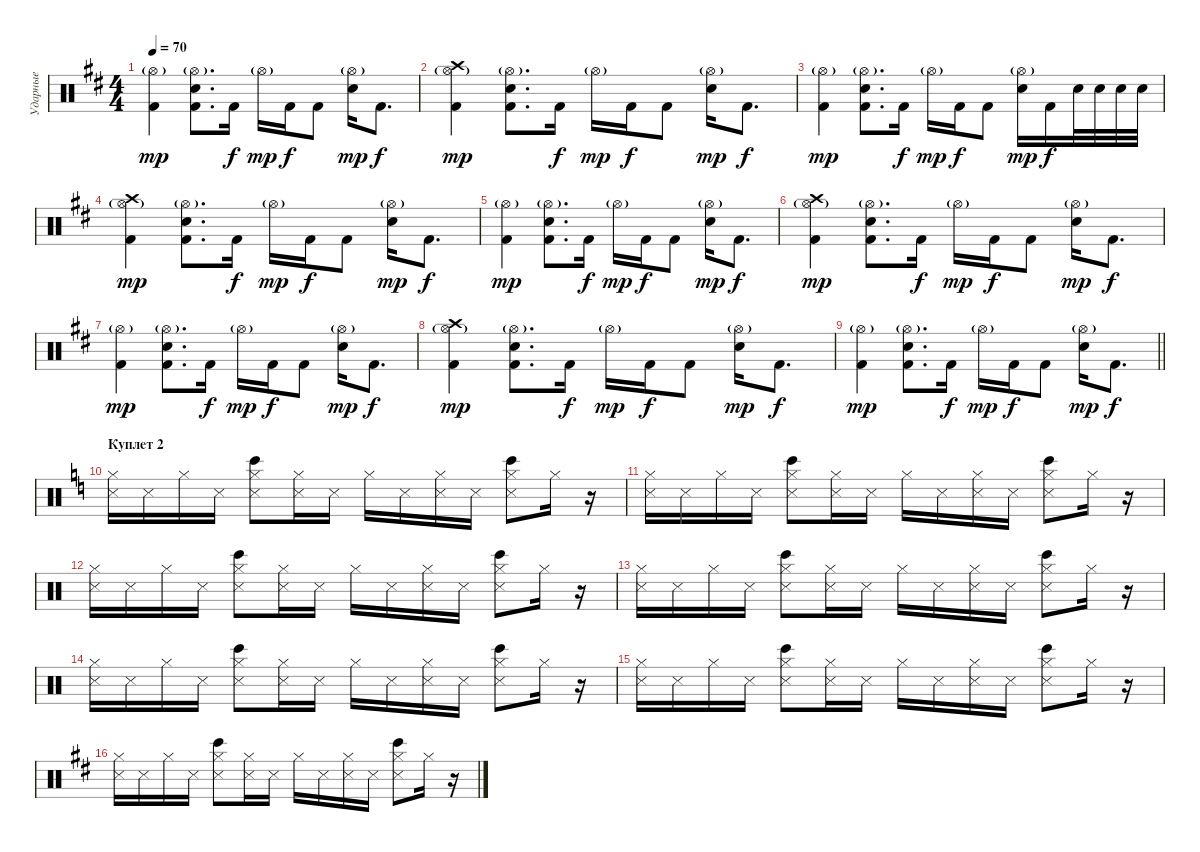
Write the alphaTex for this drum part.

\track ("Ударные" "Ударные") {instrument percussion}
\staff {score}
\articulation defaults
\ts (4 4)
\tempo 70
\clef neutral
\ks bminor
("Hi-Hat (open)"{g} "Kick (hit) 2").4{dy mp} ("Hi-Hat (open)"{g} "Electric Snare (hit)" "Kick (hit) 2").8{d} "Kick (hit) 2".16{dy f} "Hi-Hat (open)"{g}.16{dy mp} "Kick (hit) 2".16{dy f} "Kick (hit) 2".8 ("Hi-Hat (open)"{g} "Electric Snare (hit)").16{dy mp} "Kick (hit) 2".8{d dy f} |
("Crash high (hit)" "Hi-Hat (open)"{g} "Kick (hit) 2").4{dy mp} ("Hi-Hat (open)"{g} "Electric Snare (hit)" "Kick (hit) 2").8{d} "Kick (hit) 2".16{dy f} "Hi-Hat (open)"{g}.16{dy mp} "Kick (hit) 2".16{dy f} "Kick (hit) 2".8 ("Hi-Hat (open)"{g} "Electric Snare (hit)").16{dy mp} "Kick (hit) 2".8{d dy f} |
("Hi-Hat (open)"{g} "Kick (hit) 2").4{dy mp} ("Hi-Hat (open)"{g} "Electric Snare (hit)" "Kick (hit) 2").8{d} "Kick (hit) 2".16{dy f} "Hi-Hat (open)"{g}.16{dy mp} "Kick (hit) 2".16{dy f} "Kick (hit) 2".8 ("Hi-Hat (open)"{g} "Electric Snare (hit)").16{dy mp} "Kick (hit) 2".16{dy f} "Electric Snare (hit)".32 "Electric Snare (hit)".32 "Electric Snare (hit)".32 "Electric Snare (hit)".32 |
("Crash high (hit)" "Hi-Hat (open)"{g} "Kick (hit) 2").4{dy mp} ("Hi-Hat (open)"{g} "Electric Snare (hit)" "Kick (hit) 2").8{d} "Kick (hit) 2".16{dy f} "Hi-Hat (open)"{g}.16{dy mp} "Kick (hit) 2".16{dy f} "Kick (hit) 2".8 ("Hi-Hat (open)"{g} "Electric Snare (hit)").16{dy mp} "Kick (hit) 2".8{d dy f} |
("Hi-Hat (open)"{g} "Kick (hit) 2").4{dy mp} ("Hi-Hat (open)"{g} "Electric Snare (hit)" "Kick (hit) 2").8{d} "Kick (hit) 2".16{dy f} "Hi-Hat (open)"{g}.16{dy mp} "Kick (hit) 2".16{dy f} "Kick (hit) 2".8 ("Hi-Hat (open)"{g} "Electric Snare (hit)").16{dy mp} "Kick (hit) 2".8{d dy f} |
("Crash high (hit)" "Hi-Hat (open)"{g} "Kick (hit) 2").4{dy mp} ("Hi-Hat (open)"{g} "Electric Snare (hit)" "Kick (hit) 2").8{d} "Kick (hit) 2".16{dy f} "Hi-Hat (open)"{g}.16{dy mp} "Kick (hit) 2".16{dy f} "Kick (hit) 2".8 ("Hi-Hat (open)"{g} "Electric Snare (hit)").16{dy mp} "Kick (hit) 2".8{d dy f} |
("Hi-Hat (open)"{g} "Kick (hit) 2").4{dy mp} ("Hi-Hat (open)"{g} "Electric Snare (hit)" "Kick (hit) 2").8{d} "Kick (hit) 2".16{dy f} "Hi-Hat (open)"{g}.16{dy mp} "Kick (hit) 2".16{dy f} "Kick (hit) 2".8 ("Hi-Hat (open)"{g} "Electric Snare (hit)").16{dy mp} "Kick (hit) 2".8{d dy f} |
("Crash high (hit)" "Hi-Hat (open)"{g} "Kick (hit) 2").4{dy mp} ("Hi-Hat (open)"{g} "Electric Snare (hit)" "Kick (hit) 2").8{d} "Kick (hit) 2".16{dy f} "Hi-Hat (open)"{g}.16{dy mp} "Kick (hit) 2".16{dy f} "Kick (hit) 2".8 ("Hi-Hat (open)"{g} "Electric Snare (hit)").16{dy mp} "Kick (hit) 2".8{d dy f} |
\barLineRight lightlight
("Hi-Hat (open)"{g} "Kick (hit) 2").4{dy mp} ("Hi-Hat (open)"{g} "Electric Snare (hit)" "Kick (hit) 2").8{d} "Kick (hit) 2".16{dy f} "Hi-Hat (open)"{g}.16{dy mp} "Kick (hit) 2".16{dy f} "Kick (hit) 2".8 ("Hi-Hat (open)"{g} "Electric Snare (hit)").16{dy mp} "Kick (hit) 2".8{d dy f} |
\section ("" "Куплет 2")
\ks c
("Hi-Hat (closed)" "Snare (side stick) 3").16 "Snare (side stick) 3".16 "Hi-Hat (closed)".16 "Snare (side stick) 3".16 ("Hi-Hat (closed)" "Bongo High (hit)" "Snare (side stick) 3").8 ("Hi-Hat (closed)" "Snare (side stick) 3").16 "Snare (side stick) 3".16 "Hi-Hat (closed)".16 "Snare (side stick) 3".16 ("Hi-Hat (closed)" "Snare (side stick) 3").16 "Snare (side stick) 3".16 ("Hi-Hat (closed)" "Bongo High (hit)" "Snare (side stick) 3").8 "Hi-Hat (closed)".16 r.16 |
("Hi-Hat (closed)" "Snare (side stick) 3").16 "Snare (side stick) 3".16 "Hi-Hat (closed)".16 "Snare (side stick) 3".16 ("Hi-Hat (closed)" "Bongo High (hit)" "Snare (side stick) 3").8 ("Hi-Hat (closed)" "Snare (side stick) 3").16 "Snare (side stick) 3".16 "Hi-Hat (closed)".16 "Snare (side stick) 3".16 ("Hi-Hat (closed)" "Snare (side stick) 3").16 "Snare (side stick) 3".16 ("Hi-Hat (closed)" "Bongo High (hit)" "Snare (side stick) 3").8 "Hi-Hat (closed)".16 r.16 |
("Hi-Hat (closed)" "Snare (side stick) 3").16 "Snare (side stick) 3".16 "Hi-Hat (closed)".16 "Snare (side stick) 3".16 ("Hi-Hat (closed)" "Bongo High (hit)" "Snare (side stick) 3").8 ("Hi-Hat (closed)" "Snare (side stick) 3").16 "Snare (side stick) 3".16 "Hi-Hat (closed)".16 "Snare (side stick) 3".16 ("Hi-Hat (closed)" "Snare (side stick) 3").16 "Snare (side stick) 3".16 ("Hi-Hat (closed)" "Bongo High (hit)" "Snare (side stick) 3").8 "Hi-Hat (closed)".16 r.16 |
("Hi-Hat (closed)" "Snare (side stick) 3").16 "Snare (side stick) 3".16 "Hi-Hat (closed)".16 "Snare (side stick) 3".16 ("Hi-Hat (closed)" "Bongo High (hit)" "Snare (side stick) 3").8 ("Hi-Hat (closed)" "Snare (side stick) 3").16 "Snare (side stick) 3".16 "Hi-Hat (closed)".16 "Snare (side stick) 3".16 ("Hi-Hat (closed)" "Snare (side stick) 3").16 "Snare (side stick) 3".16 ("Hi-Hat (closed)" "Bongo High (hit)" "Snare (side stick) 3").8 "Hi-Hat (closed)".16 r.16 |
("Hi-Hat (closed)" "Snare (side stick) 3").16 "Snare (side stick) 3".16 "Hi-Hat (closed)".16 "Snare (side stick) 3".16 ("Hi-Hat (closed)" "Bongo High (hit)" "Snare (side stick) 3").8 ("Hi-Hat (closed)" "Snare (side stick) 3").16 "Snare (side stick) 3".16 "Hi-Hat (closed)".16 "Snare (side stick) 3".16 ("Hi-Hat (closed)" "Snare (side stick) 3").16 "Snare (side stick) 3".16 ("Hi-Hat (closed)" "Bongo High (hit)" "Snare (side stick) 3").8 "Hi-Hat (closed)".16 r.16 |
("Hi-Hat (closed)" "Snare (side stick) 3").16 "Snare (side stick) 3".16 "Hi-Hat (closed)".16 "Snare (side stick) 3".16 ("Hi-Hat (closed)" "Bongo High (hit)" "Snare (side stick) 3").8 ("Hi-Hat (closed)" "Snare (side stick) 3").16 "Snare (side stick) 3".16 "Hi-Hat (closed)".16 "Snare (side stick) 3".16 ("Hi-Hat (closed)" "Snare (side stick) 3").16 "Snare (side stick) 3".16 ("Hi-Hat (closed)" "Bongo High (hit)" "Snare (side stick) 3").8 "Hi-Hat (closed)".16 r.16 |
\ks bminor
("Hi-Hat (closed)" "Snare (side stick) 3").16 "Snare (side stick) 3".16 "Hi-Hat (closed)".16 "Snare (side stick) 3".16 ("Hi-Hat (closed)" "Bongo High (hit)" "Snare (side stick) 3").8 ("Hi-Hat (closed)" "Snare (side stick) 3").16 "Snare (side stick) 3".16 "Hi-Hat (closed)".16 "Snare (side stick) 3".16 ("Hi-Hat (closed)" "Snare (side stick) 3").16 "Snare (side stick) 3".16 ("Hi-Hat (closed)" "Bongo High (hit)" "Snare (side stick) 3").8 "Hi-Hat (closed)".16 r.16
